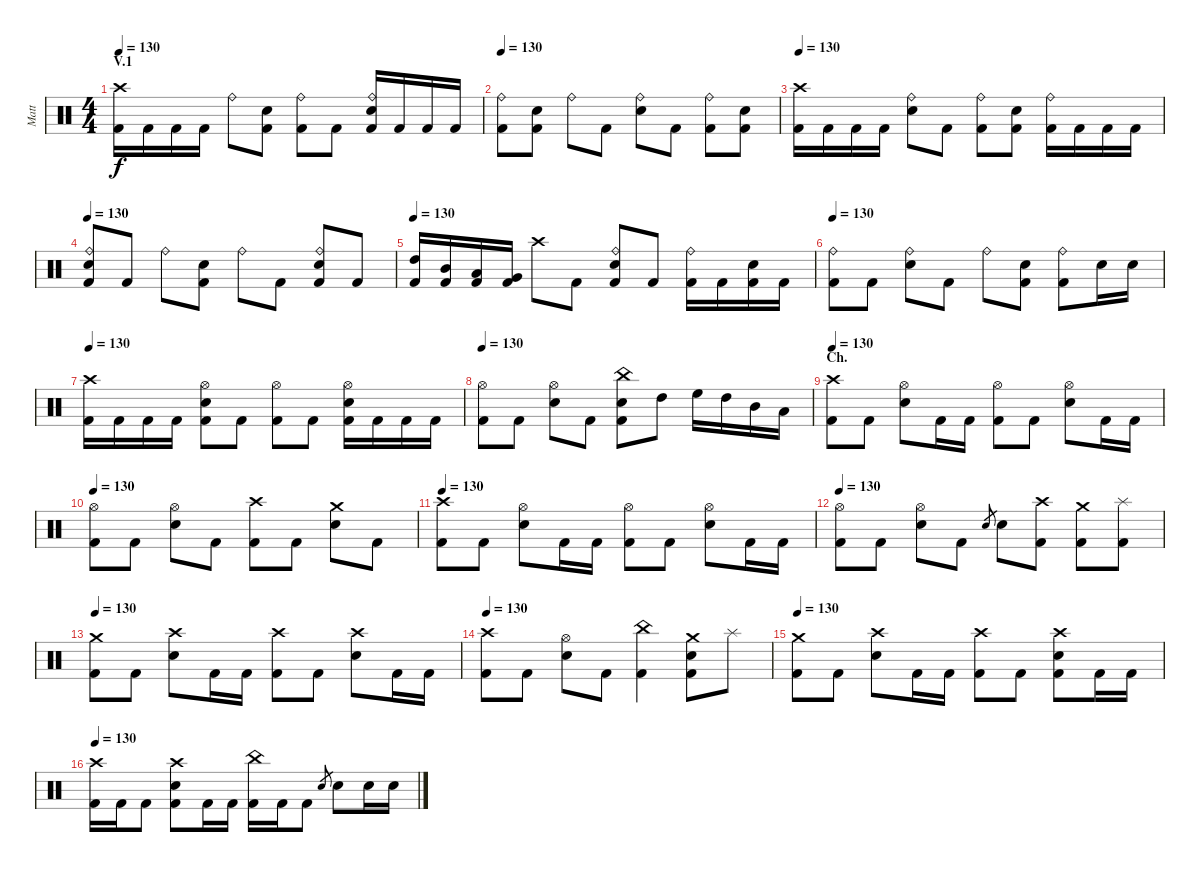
\track ("Matt" "Matt") {instrument percussion}
\staff {score}
\articulation defaults
\ts (4 4)
\section ("" "V.1")
\tempo 130
\clef neutral
\ks c
("Crash high (hit)" "Kick (hit) 2").16{dy f} "Kick (hit) 2".16 "Kick (hit) 2".16 "Kick (hit) 2".16 "Ride (bell)".8 ("Electric Snare (hit)" "Kick (hit) 2").8 ("Ride (bell)" "Kick (hit) 2").8 "Kick (hit) 2".8 ("Ride (bell)" "Electric Snare (hit)" "Kick (hit) 2").16 "Kick (hit) 2".16 "Kick (hit) 2".16 "Kick (hit) 2".16 |
\tempo 130
("Ride (bell)" "Kick (hit) 2").8 ("Electric Snare (hit)" "Kick (hit) 2").8 "Ride (bell)".8 "Kick (hit) 2".8 ("Ride (bell)" "Electric Snare (hit)").8 "Kick (hit) 2".8 ("Ride (bell)" "Kick (hit) 2").8 ("Electric Snare (hit)" "Kick (hit) 2").8 |
\tempo 130
("Crash high (hit)" "Kick (hit) 2").16 "Kick (hit) 2".16 "Kick (hit) 2".16 "Kick (hit) 2".16 ("Ride (bell)" "Electric Snare (hit)").8 "Kick (hit) 2".8 ("Ride (bell)" "Kick (hit) 2").8 ("Electric Snare (hit)" "Kick (hit) 2").8 ("Ride (bell)" "Kick (hit) 2").16 "Kick (hit) 2".16 "Kick (hit) 2".16 "Kick (hit) 2".16 |
\tempo 130
("Ride (bell)" "Electric Snare (hit)" "Kick (hit) 2").8 "Kick (hit) 2".8 "Ride (bell)".8 ("Electric Snare (hit)" "Kick (hit) 2").8 "Ride (bell)".8 "Kick (hit) 2".8 ("Ride (bell)" "Electric Snare (hit)" "Kick (hit) 2").8 "Kick (hit) 2".8 |
\tempo 130
("High Tom (hit)" "Kick (hit) 2").16 ("Mid Tom (hit)" "Kick (hit) 2").16 ("Low Tom (hit)" "Kick (hit) 2").16 ("Very Low Tom (hit)" "Kick (hit) 2").16 "Crash high (hit)".8 "Kick (hit) 2".8 ("Ride (bell)" "Electric Snare (hit)" "Kick (hit) 2").8 "Kick (hit) 2".8 ("Ride (bell)" "Kick (hit) 2").16 "Kick (hit) 2".16 ("Electric Snare (hit)" "Kick (hit) 2").16 "Kick (hit) 2".16 |
\tempo 130
("Ride (bell)" "Kick (hit) 2").8 "Kick (hit) 2".8 ("Ride (bell)" "Electric Snare (hit)").8 "Kick (hit) 2".8 "Ride (bell)".8 ("Electric Snare (hit)" "Kick (hit) 2").8 ("Ride (bell)" "Kick (hit) 2").8 "Electric Snare (hit)".16 "Electric Snare (hit)".16 |
\tempo 130
("Crash high (hit)" "Kick (hit) 2").16 "Kick (hit) 2".16 "Kick (hit) 2".16 "Kick (hit) 2".16 ("Hi-Hat (open)" "Electric Snare (hit)" "Kick (hit) 2").8 "Kick (hit) 2".8 ("Hi-Hat (open)" "Kick (hit) 2").8 "Kick (hit) 2".8 ("Hi-Hat (open)" "Electric Snare (hit)" "Kick (hit) 2").16 "Kick (hit) 2".16 "Kick (hit) 2".16 "Kick (hit) 2".16 |
\tempo 130
("Hi-Hat (open)" "Kick (hit) 2").8 "Kick (hit) 2".8 ("Hi-Hat (open)" "Electric Snare (hit)").8 "Kick (hit) 2".8 ("China (hit)" "Electric Snare (hit)" "Kick (hit) 2").8 "High Tom (hit)".8 "High Floor Tom (hit)".16 "High Tom (hit)".16 "Mid Tom (hit)".16 "Low Tom (hit)".16 |
\section ("" "Ch.")
\tempo 130
("Crash high (hit)" "Kick (hit) 2").8 "Kick (hit) 2".8 ("Hi-Hat (open)" "Electric Snare (hit)").8 "Kick (hit) 2".16 "Kick (hit) 2".16 ("Hi-Hat (open)" "Kick (hit) 2").8 "Kick (hit) 2".8 ("Hi-Hat (open)" "Electric Snare (hit)").8 "Kick (hit) 2".16 "Kick (hit) 2".16 |
\tempo 130
("Hi-Hat (open)" "Kick (hit) 2").8 "Kick (hit) 2".8 ("Hi-Hat (open)" "Electric Snare (hit)").8 "Kick (hit) 2".8 ("Crash high (hit)" "Kick (hit) 2").8 "Kick (hit) 2".8 ("Crash medium (hit)" "Electric Snare (hit)").8 "Kick (hit) 2".8 |
\tempo 130
("Crash high (hit)" "Kick (hit) 2").8 "Kick (hit) 2".8 ("Hi-Hat (open)" "Electric Snare (hit)").8 "Kick (hit) 2".16 "Kick (hit) 2".16 ("Hi-Hat (open)" "Kick (hit) 2").8 "Kick (hit) 2".8 ("Hi-Hat (open)" "Electric Snare (hit)").8 "Kick (hit) 2".16 "Kick (hit) 2".16 |
\tempo 130
("Hi-Hat (open)" "Kick (hit) 2").8 "Kick (hit) 2".8 ("Hi-Hat (open)" "Electric Snare (hit)").8 "Kick (hit) 2".8 "Electric Snare (hit)".8{gr} "Electric Snare (hit)".8 ("Crash high (hit)" "Kick (hit) 2").8 ("Crash medium (hit)" "Kick (hit) 2").8 ("Splash (hit)" "Kick (hit) 2").8 |
\tempo 130
("Crash medium (hit)" "Kick (hit) 2").8 "Kick (hit) 2".8 ("Crash high (hit)" "Electric Snare (hit)").8 "Kick (hit) 2".16 "Kick (hit) 2".16 ("Crash high (hit)" "Kick (hit) 2").8 "Kick (hit) 2".8 ("Crash high (hit)" "Electric Snare (hit)").8 "Kick (hit) 2".16 "Kick (hit) 2".16 |
\tempo 130
("Crash high (hit)" "Kick (hit) 2").8 "Kick (hit) 2".8 ("Hi-Hat (open)" "Electric Snare (hit)").8 "Kick (hit) 2".8 ("China (hit)" "Kick (hit) 2").4 ("Crash medium (hit)" "Electric Snare (hit)" "Kick (hit) 2").8 "Splash (hit)".8 |
\tempo 130
("Crash medium (hit)" "Kick (hit) 2").8 "Kick (hit) 2".8 ("Crash high (hit)" "Electric Snare (hit)").8 "Kick (hit) 2".16 "Kick (hit) 2".16 ("Crash high (hit)" "Kick (hit) 2").8 "Kick (hit) 2".8 ("Crash high (hit)" "Electric Snare (hit)" "Kick (hit) 2").8 "Kick (hit) 2".16 "Kick (hit) 2".16 |
\tempo 130
("Crash high (hit)" "Kick (hit) 2").16 "Kick (hit) 2".16 "Kick (hit) 2".8 ("Crash high (hit)" "Electric Snare (hit)" "Kick (hit) 2").8 "Kick (hit) 2".16 "Kick (hit) 2".16 ("China (hit)" "Kick (hit) 2").16 "Kick (hit) 2".16 "Kick (hit) 2".8 "Electric Snare (hit)".8{gr} "Electric Snare (hit)".8 "Electric Snare (hit)".16 "Electric Snare (hit)".16
